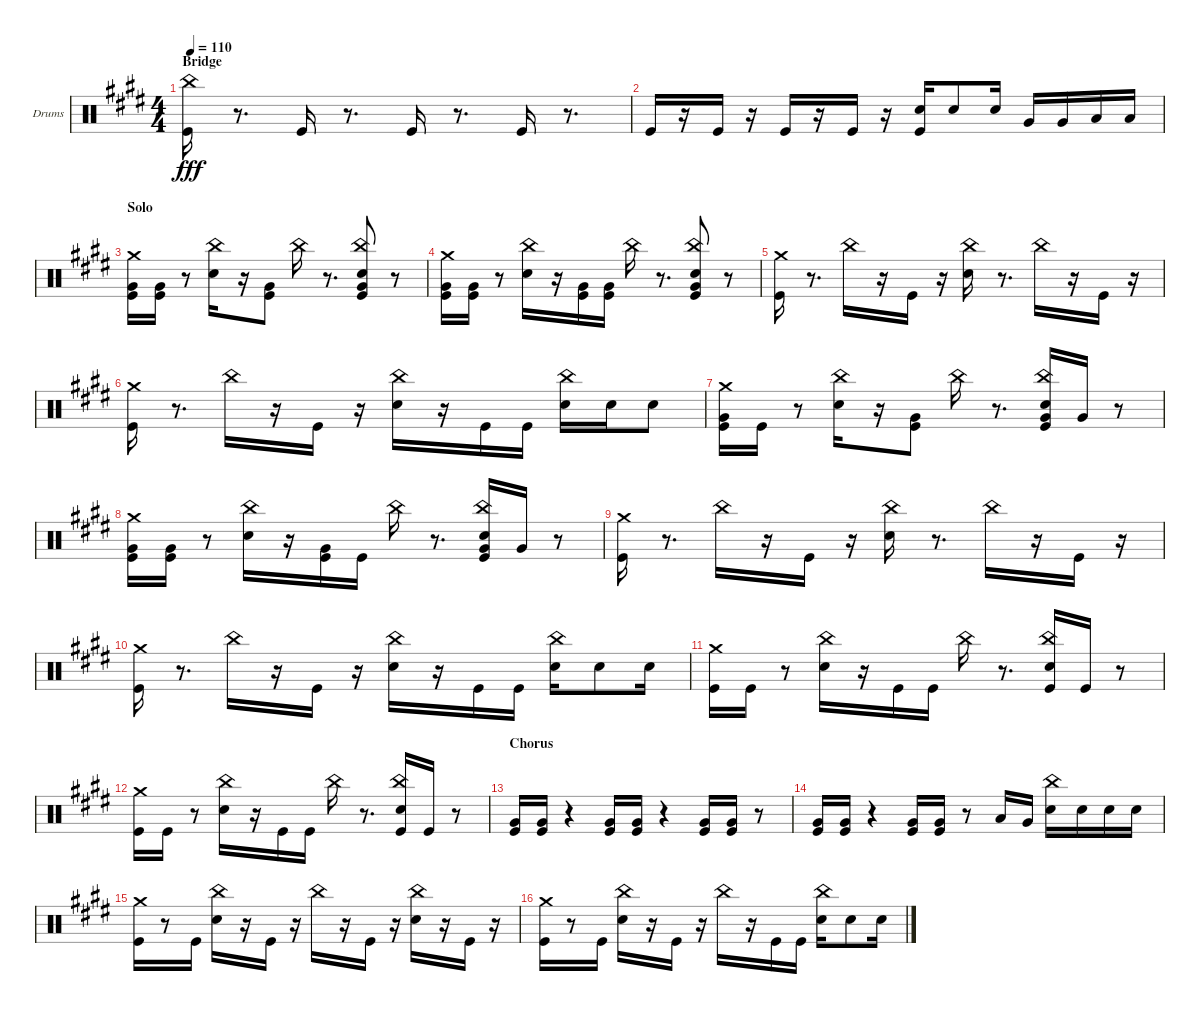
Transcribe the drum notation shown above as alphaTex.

\bracketExtendMode groupsimilarinstruments
\firstSystemTrackNameOrientation horizontal
\otherSystemsTrackNameOrientation horizontal
\track ("Drumkit" "Drums") {instrument percussion}
\staff {score}
\articulation defaults
\ts (4 4)
\section ("" "Bridge")
\tempo 110
\clef neutral
\scale
0.333333
\ks c#minor
("Kick (hit)" "China (hit)").16{dy fff} r.8{d} "Kick (hit)".16 r.8{d} "Kick (hit)".16 r.8{d} "Kick (hit)".16 r.8{d} |
\scale
0.333333 "Kick (hit)".16 r.16 "Kick (hit)".16 r.16 "Kick (hit)".16 r.16 "Kick (hit)".16 r.16 ("Snare (hit) 2" "Kick (hit)").16 "Snare (hit) 2".8 "Snare (hit) 2".16 "Very Low Tom (hit)".16 "Very Low Tom (hit)".16 "Low Tom (hit)".16 "Low Tom (hit)".16 |
\section ("" "Solo")
\scale
0.333333 ("Crash medium (hit)" "Very Low Tom (hit)" "Kick (hit)").16 ("Very Low Tom (hit)" "Kick (hit)").16 r.8 ("China (hit)" "Snare (hit) 2").16 r.16 ("Very Low Tom (hit)" "Kick (hit)").8 "China (hit)".16 r.8{d} ("Very Low Tom (hit)" "Kick (hit)" "China (hit)" "Snare (hit) 2").8 r.8 |
\scale
0.333333 ("Very Low Tom (hit)" "Kick (hit)" "Crash medium (hit)").16 ("Very Low Tom (hit)" "Kick (hit)").16 r.8 ("China (hit)" "Snare (hit) 2").16 r.16 ("Very Low Tom (hit)" "Kick (hit)").16 ("Very Low Tom (hit)" "Kick (hit)").16 "China (hit)".16 r.8{d} ("Very Low Tom (hit)" "Kick (hit)" "Snare (hit) 2" "China (hit)").8 r.8 |
\scale
0.333333 ("Kick (hit)" "Crash medium (hit)").16 r.8{d} "China (hit)".16 r.16 "Kick (hit)".16 r.16 ("China (hit)" "Snare (hit) 2").16 r.8{d} "China (hit)".16 r.16 "Kick (hit)".16 r.16 |
\scale
0.333333 ("Crash medium (hit)" "Kick (hit)").16 r.8{d} "China (hit)".16 r.16 "Kick (hit)".16 r.16 ("China (hit)" "Snare (hit) 2").16 r.16 "Kick (hit)".16 "Kick (hit)".16 ("China (hit)" "Snare (hit) 2").16 "Snare (hit) 2".16 "Snare (hit) 2".8 |
\scale
0.333333 ("Very Low Tom (hit)" "Crash medium (hit)" "Kick (hit)").16 "Kick (hit)".16 r.8 ("China (hit)" "Snare (hit) 2").16 r.16 ("Very Low Tom (hit)" "Kick (hit)").8 "China (hit)".16 r.8{d} ("Very Low Tom (hit)" "Kick (hit)" "China (hit)" "Snare (hit) 2").16 "Very Low Tom (hit)".16 r.8 |
\scale
0.333333 ("Very Low Tom (hit)" "Kick (hit)" "Crash medium (hit)").16 ("Very Low Tom (hit)" "Kick (hit)").16 r.8 ("China (hit)" "Snare (hit) 2").16 r.16 ("Very Low Tom (hit)" "Kick (hit)").16 "Kick (hit)".16 "China (hit)".16 r.8{d} ("Very Low Tom (hit)" "Kick (hit)" "China (hit)" "Snare (hit) 2").16 "Very Low Tom (hit)".16 r.8 |
\scale
0.333333 ("Crash medium (hit)" "Kick (hit)").16 r.8{d} "China (hit)".16 r.16 "Kick (hit)".16 r.16 ("China (hit)" "Snare (hit) 2").16 r.8{d} "China (hit)".16 r.16 "Kick (hit)".16 r.16 |
\scale
0.333333 ("Kick (hit)" "Crash medium (hit)").16 r.8{d} "China (hit)".16 r.16 "Kick (hit)".16 r.16 ("China (hit)" "Snare (hit) 2").16 r.16 "Kick (hit)".16 "Kick (hit)".16 ("Snare (hit) 2" "China (hit)").16 "Snare (hit) 2".8 "Snare (hit) 2".16 |
\scale
0.333333 ("Crash medium (hit)" "Kick (hit)").16 "Kick (hit)".16 r.8 ("China (hit)" "Snare (hit) 2").16 r.16 "Kick (hit)".16 "Kick (hit)".16 "China (hit)".16 r.8{d} ("China (hit)" "Kick (hit)" "Snare (hit) 2").16 "Kick (hit)".16 r.8 |
\scale
0.333333 ("Kick (hit)" "Crash medium (hit)").16 "Kick (hit)".16 r.8 ("China (hit)" "Snare (hit) 2").16 r.16 "Kick (hit)".16 "Kick (hit)".16 "China (hit)".16 r.8{d} ("Kick (hit)" "China (hit)" "Snare (hit) 2").16 "Kick (hit)".16 r.8 |
\section ("" "Chorus")
\scale
0.333333 ("Kick (hit)" "Very Low Tom (hit)").16 ("Kick (hit)" "Very Low Tom (hit)").16 r.4 ("Kick (hit)" "Very Low Tom (hit)").16 ("Kick (hit)" "Very Low Tom (hit)").16 r.4 ("Kick (hit)" "Very Low Tom (hit)").16 ("Kick (hit)" "Very Low Tom (hit)").16 r.8 |
\scale
0.333333 ("Kick (hit)" "Very Low Tom (hit)").16 ("Kick (hit)" "Very Low Tom (hit)").16 r.4 ("Kick (hit)" "Very Low Tom (hit)").16 ("Kick (hit)" "Very Low Tom (hit)").16 r.8 "Low Tom (hit)".16 "Very Low Tom (hit)".16 ("Snare (hit) 2" "China (hit)").16 "Snare (hit) 2".16 "Snare (hit) 2".16 "Snare (hit) 2".16 |
\scale
0.333333 ("Kick (hit)" "Crash medium (hit)").16 r.8 "Kick (hit)".16 ("China (hit)" "Snare (hit) 2").16 r.16 "Kick (hit)".16 r.16 "China (hit)".16 r.16 "Kick (hit)".16 r.16 ("Snare (hit) 2" "China (hit)").16 r.16 "Kick (hit)".16 r.16 |
\scale
0.333333 ("Kick (hit)" "Crash medium (hit)").16 r.8 "Kick (hit)".16 ("Snare (hit) 2" "China (hit)").16 r.16 "Kick (hit)".16 r.16 "China (hit)".16 r.16 "Kick (hit)".16 "Kick (hit)".16 ("Snare (hit) 2" "China (hit)").16 "Snare (hit) 2".8 "Snare (hit) 2".16
